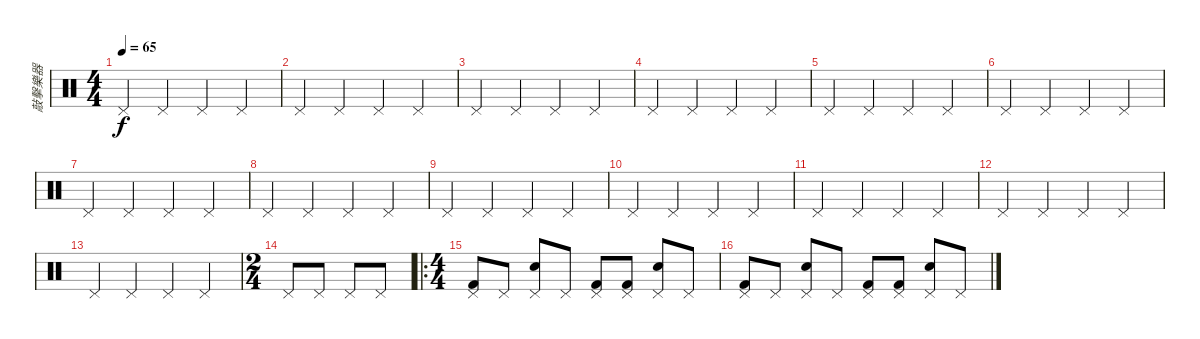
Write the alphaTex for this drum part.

\track ("敲擊樂器" "敲擊樂器") {instrument percussion}
\staff {score}
\articulation defaults
\ts (4 4)
\tempo 65
\clef neutral
\ks c "Pedal Hi-Hat (hit)".4{dy f} "Pedal Hi-Hat (hit)".4 "Pedal Hi-Hat (hit)".4 "Pedal Hi-Hat (hit)".4
|
"Pedal Hi-Hat (hit)".4 "Pedal Hi-Hat (hit)".4 "Pedal Hi-Hat (hit)".4 "Pedal Hi-Hat (hit)".4 |
"Pedal Hi-Hat (hit)".4 "Pedal Hi-Hat (hit)".4 "Pedal Hi-Hat (hit)".4 "Pedal Hi-Hat (hit)".4 |
"Pedal Hi-Hat (hit)".4 "Pedal Hi-Hat (hit)".4 "Pedal Hi-Hat (hit)".4 "Pedal Hi-Hat (hit)".4 |
"Pedal Hi-Hat (hit)".4 "Pedal Hi-Hat (hit)".4 "Pedal Hi-Hat (hit)".4 "Pedal Hi-Hat (hit)".4 |
"Pedal Hi-Hat (hit)".4 "Pedal Hi-Hat (hit)".4 "Pedal Hi-Hat (hit)".4 "Pedal Hi-Hat (hit)".4 |
"Pedal Hi-Hat (hit)".4 "Pedal Hi-Hat (hit)".4 "Pedal Hi-Hat (hit)".4 "Pedal Hi-Hat (hit)".4 |
"Pedal Hi-Hat (hit)".4 "Pedal Hi-Hat (hit)".4 "Pedal Hi-Hat (hit)".4 "Pedal Hi-Hat (hit)".4 |
"Pedal Hi-Hat (hit)".4 "Pedal Hi-Hat (hit)".4 "Pedal Hi-Hat (hit)".4 "Pedal Hi-Hat (hit)".4 |
"Pedal Hi-Hat (hit)".4 "Pedal Hi-Hat (hit)".4 "Pedal Hi-Hat (hit)".4 "Pedal Hi-Hat (hit)".4 |
"Pedal Hi-Hat (hit)".4 "Pedal Hi-Hat (hit)".4 "Pedal Hi-Hat (hit)".4 "Pedal Hi-Hat (hit)".4 |
"Pedal Hi-Hat (hit)".4 "Pedal Hi-Hat (hit)".4 "Pedal Hi-Hat (hit)".4 "Pedal Hi-Hat (hit)".4 |
"Pedal Hi-Hat (hit)".4 "Pedal Hi-Hat (hit)".4 "Pedal Hi-Hat (hit)".4 "Pedal Hi-Hat (hit)".4 |
\ts (2 4)
"Pedal Hi-Hat (hit)".8 "Pedal Hi-Hat (hit)".8 "Pedal Hi-Hat (hit)".8 "Pedal Hi-Hat (hit)".8 |
\ro
\ts (4 4)
("Kick (hit) 2" "Pedal Hi-Hat (hit)").8 "Pedal Hi-Hat (hit)".8 ("Electric Snare (hit)" "Pedal Hi-Hat (hit)").8 "Pedal Hi-Hat (hit)".8 ("Kick (hit) 2" "Pedal Hi-Hat (hit)").8 ("Kick (hit) 2" "Pedal Hi-Hat (hit)").8 ("Electric Snare (hit)" "Pedal Hi-Hat (hit)").8 "Pedal Hi-Hat (hit)".8 |
("Kick (hit) 2" "Pedal Hi-Hat (hit)").8 "Pedal Hi-Hat (hit)".8 ("Electric Snare (hit)" "Pedal Hi-Hat (hit)").8 "Pedal Hi-Hat (hit)".8 ("Kick (hit) 2" "Pedal Hi-Hat (hit)").8 ("Kick (hit) 2" "Pedal Hi-Hat (hit)").8 ("Electric Snare (hit)" "Pedal Hi-Hat (hit)").8 "Pedal Hi-Hat (hit)".8
